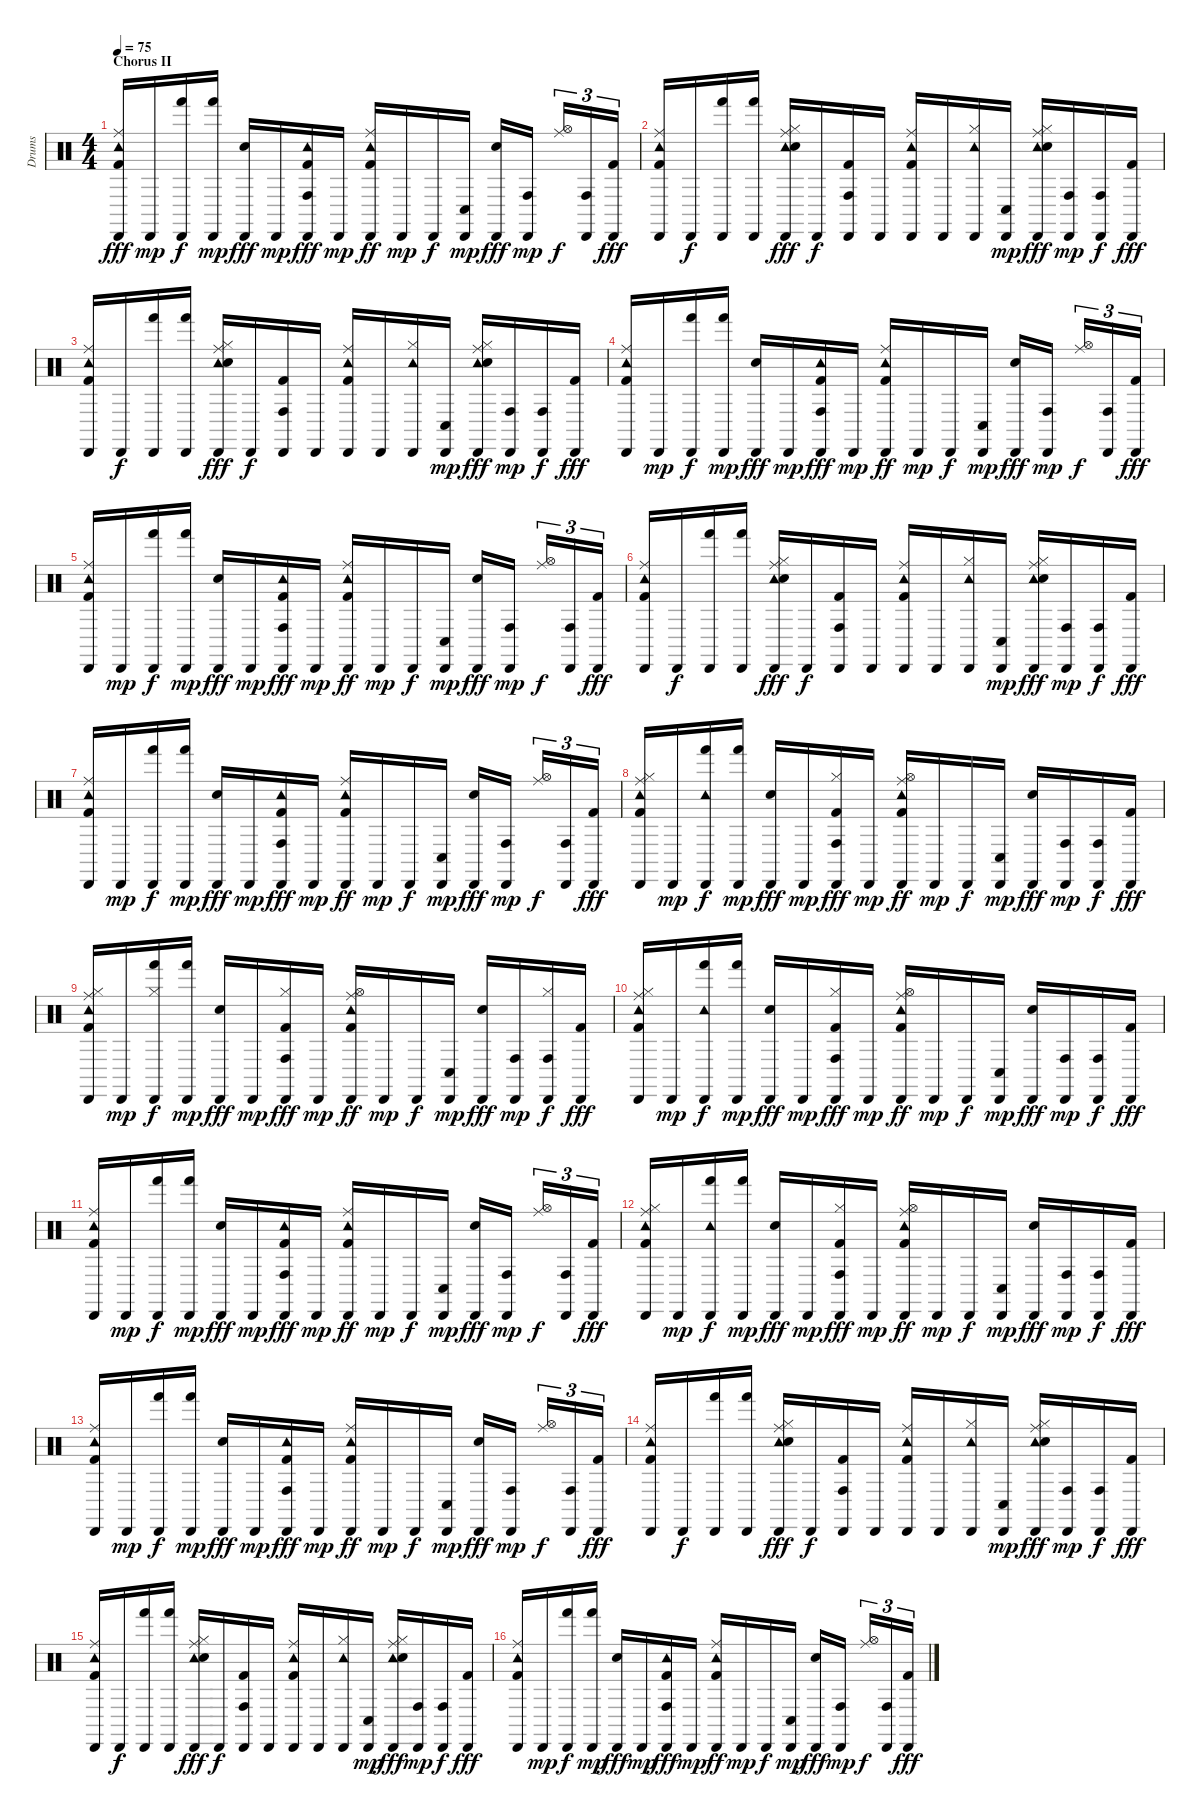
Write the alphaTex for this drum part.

\track ("Drums" "Drums") {instrument percussion}
\staff {score}
\articulation defaults
\ts (4 4)
\section ("" "Chorus II")
\tempo 75
\clef neutral
\ks c
("Cabasa (hit)" "Tambourine (hit)" "Kick (hit) 2" "Ride (middle)").16{dy fff} "Cabasa (hit)".16{dy mp} ("Cabasa (hit)" "Hand (hit)").16{dy f} ("Cabasa (hit)" "Hand (hit)").16{dy mp} ("Cabasa (hit)" "Snare (hit) 2").16{dy fff} "Cabasa (hit)".16{dy mp} ("Cabasa (hit)" "Conga high (hit)" "Tambourine (hit)" "Kick (hit) 2").16{dy fff} "Cabasa (hit)".16{dy mp} ("Tambourine (hit)" "Kick (hit) 2" "Ride (middle)" "Cabasa (hit)").16{dy ff} "Cabasa (hit)".16{dy mp} "Cabasa (hit)".16{dy f} ("Cabasa (hit)" "Conga low (hit)").16{dy mp} ("Cabasa (hit)" "Snare (hit) 2").16{dy fff} ("Cabasa (hit)" "Conga high (hit)").16{dy mp beam splitsecondary} ("Ride (middle)" "Hi-Hat (open)").16{tu (3 2) dy f} ("Cabasa (hit)" "Conga high (hit)").16{tu (3 2)} ("Cabasa (hit)" "Kick (hit) 2").16{tu (3 2) dy fff} |
("Ride (middle)" "Tambourine (hit)" "Kick (hit) 2" "Cabasa (hit)").16 "Cabasa (hit)".16{dy f} ("Hand (hit)" "Cabasa (hit)").16 ("Hand (hit)" "Cabasa (hit)").16 ("Cabasa (hit)" "Hi-Hat (closed)" "Tambourine (hit)" "Snare (hit) 2" "Ride (middle)").16{dy fff} "Cabasa (hit)".16{dy f} ("Conga high (hit)" "Kick (hit) 2" "Cabasa (hit)").16 "Cabasa (hit)".16 ("Ride (middle)" "Tambourine (hit)" "Kick (hit) 2" "Cabasa (hit)").16 "Cabasa (hit)".16 ("Cabasa (hit)" "Hi-Hat (closed)" "Tambourine (hit)").16 ("Cabasa (hit)" "Conga low (hit)").16{dy mp} ("Cabasa (hit)" "Hi-Hat (closed)" "Tambourine (hit)" "Snare (hit) 2" "Ride (middle)").16{dy fff} ("Cabasa (hit)" "Conga high (hit)").16{dy mp} ("Cabasa (hit)" "Conga high (hit)").16{dy f} ("Cabasa (hit)" "Kick (hit) 2").16{dy fff} |
("Ride (middle)" "Tambourine (hit)" "Kick (hit) 2" "Cabasa (hit)").16 "Cabasa (hit)".16{dy f} ("Hand (hit)" "Cabasa (hit)").16 ("Hand (hit)" "Cabasa (hit)").16 ("Cabasa (hit)" "Hi-Hat (closed)" "Tambourine (hit)" "Snare (hit) 2" "Ride (middle)").16{dy fff} "Cabasa (hit)".16{dy f} ("Conga high (hit)" "Kick (hit) 2" "Cabasa (hit)").16 "Cabasa (hit)".16 ("Ride (middle)" "Tambourine (hit)" "Kick (hit) 2" "Cabasa (hit)").16 "Cabasa (hit)".16 ("Cabasa (hit)" "Hi-Hat (closed)" "Tambourine (hit)").16 ("Cabasa (hit)" "Conga low (hit)").16{dy mp} ("Cabasa (hit)" "Hi-Hat (closed)" "Tambourine (hit)" "Snare (hit) 2" "Ride (middle)").16{dy fff} ("Cabasa (hit)" "Conga high (hit)").16{dy mp} ("Cabasa (hit)" "Conga high (hit)").16{dy f} ("Cabasa (hit)" "Kick (hit) 2").16{dy fff} |
("Cabasa (hit)" "Tambourine (hit)" "Kick (hit) 2" "Ride (middle)").16 "Cabasa (hit)".16{dy mp} ("Cabasa (hit)" "Hand (hit)").16{dy f} ("Cabasa (hit)" "Hand (hit)").16{dy mp} ("Cabasa (hit)" "Snare (hit) 2").16{dy fff} "Cabasa (hit)".16{dy mp} ("Cabasa (hit)" "Conga high (hit)" "Tambourine (hit)" "Kick (hit) 2").16{dy fff} "Cabasa (hit)".16{dy mp} ("Tambourine (hit)" "Kick (hit) 2" "Ride (middle)" "Cabasa (hit)").16{dy ff} "Cabasa (hit)".16{dy mp} "Cabasa (hit)".16{dy f} ("Cabasa (hit)" "Conga low (hit)").16{dy mp} ("Cabasa (hit)" "Snare (hit) 2").16{dy fff} ("Cabasa (hit)" "Conga high (hit)").16{dy mp beam splitsecondary} ("Ride (middle)" "Hi-Hat (open)").16{tu (3 2) dy f} ("Cabasa (hit)" "Conga high (hit)").16{tu (3 2)} ("Cabasa (hit)" "Kick (hit) 2").16{tu (3 2) dy fff} |
("Cabasa (hit)" "Tambourine (hit)" "Kick (hit) 2" "Ride (middle)").16 "Cabasa (hit)".16{dy mp} ("Cabasa (hit)" "Hand (hit)").16{dy f} ("Cabasa (hit)" "Hand (hit)").16{dy mp} ("Cabasa (hit)" "Snare (hit) 2").16{dy fff} "Cabasa (hit)".16{dy mp} ("Cabasa (hit)" "Conga high (hit)" "Tambourine (hit)" "Kick (hit) 2").16{dy fff} "Cabasa (hit)".16{dy mp} ("Tambourine (hit)" "Kick (hit) 2" "Ride (middle)" "Cabasa (hit)").16{dy ff} "Cabasa (hit)".16{dy mp} "Cabasa (hit)".16{dy f} ("Cabasa (hit)" "Conga low (hit)").16{dy mp} ("Cabasa (hit)" "Snare (hit) 2").16{dy fff} ("Cabasa (hit)" "Conga high (hit)").16{dy mp beam splitsecondary} ("Ride (middle)" "Hi-Hat (open)").16{tu (3 2) dy f} ("Cabasa (hit)" "Conga high (hit)").16{tu (3 2)} ("Cabasa (hit)" "Kick (hit) 2").16{tu (3 2) dy fff} |
("Ride (middle)" "Tambourine (hit)" "Kick (hit) 2" "Cabasa (hit)").16 "Cabasa (hit)".16{dy f} ("Hand (hit)" "Cabasa (hit)").16 ("Hand (hit)" "Cabasa (hit)").16 ("Cabasa (hit)" "Hi-Hat (closed)" "Tambourine (hit)" "Snare (hit) 2" "Ride (middle)").16{dy fff} "Cabasa (hit)".16{dy f} ("Conga high (hit)" "Kick (hit) 2" "Cabasa (hit)").16 "Cabasa (hit)".16 ("Ride (middle)" "Tambourine (hit)" "Kick (hit) 2" "Cabasa (hit)").16 "Cabasa (hit)".16 ("Cabasa (hit)" "Hi-Hat (closed)" "Tambourine (hit)").16 ("Cabasa (hit)" "Conga low (hit)").16{dy mp} ("Cabasa (hit)" "Hi-Hat (closed)" "Tambourine (hit)" "Snare (hit) 2" "Ride (middle)").16{dy fff} ("Cabasa (hit)" "Conga high (hit)").16{dy mp} ("Cabasa (hit)" "Conga high (hit)").16{dy f} ("Cabasa (hit)" "Kick (hit) 2").16{dy fff} |
("Cabasa (hit)" "Tambourine (hit)" "Kick (hit) 2" "Ride (middle)").16 "Cabasa (hit)".16{dy mp} ("Cabasa (hit)" "Hand (hit)").16{dy f} ("Cabasa (hit)" "Hand (hit)").16{dy mp} ("Cabasa (hit)" "Snare (hit) 2").16{dy fff} "Cabasa (hit)".16{dy mp} ("Cabasa (hit)" "Conga high (hit)" "Tambourine (hit)" "Kick (hit) 2").16{dy fff} "Cabasa (hit)".16{dy mp} ("Tambourine (hit)" "Kick (hit) 2" "Ride (middle)" "Cabasa (hit)").16{dy ff} "Cabasa (hit)".16{dy mp} "Cabasa (hit)".16{dy f} ("Cabasa (hit)" "Conga low (hit)").16{dy mp} ("Cabasa (hit)" "Snare (hit) 2").16{dy fff} ("Cabasa (hit)" "Conga high (hit)").16{dy mp beam splitsecondary} ("Ride (middle)" "Hi-Hat (open)").16{tu (3 2) dy f} ("Cabasa (hit)" "Conga high (hit)").16{tu (3 2)} ("Cabasa (hit)" "Kick (hit) 2").16{tu (3 2) dy fff} |
("Cabasa (hit)" "Tambourine (hit)" "Kick (hit) 2" "Ride (middle)" "Hi-Hat (closed)").16 "Cabasa (hit)".16{dy mp} ("Cabasa (hit)" "Hand (hit)" "Tambourine (hit)").16{dy f} ("Cabasa (hit)" "Hand (hit)").16{dy mp} ("Cabasa (hit)" "Snare (hit) 2").16{dy fff} "Cabasa (hit)".16{dy mp} ("Cabasa (hit)" "Conga high (hit)" "Hi-Hat (closed)" "Kick (hit) 2").16{dy fff} "Cabasa (hit)".16{dy mp} ("Tambourine (hit)" "Kick (hit) 2" "Ride (middle)" "Hi-Hat (open)" "Cabasa (hit)").16{dy ff} "Cabasa (hit)".16{dy mp} "Cabasa (hit)".16{dy f} ("Cabasa (hit)" "Conga low (hit)").16{dy mp} ("Cabasa (hit)" "Snare (hit) 2").16{dy fff} ("Cabasa (hit)" "Conga high (hit)").16{dy mp} ("Cabasa (hit)" "Conga high (hit)").16{dy f} ("Cabasa (hit)" "Kick (hit) 2").16{dy fff} |
("Cabasa (hit)" "Tambourine (hit)" "Kick (hit) 2" "Ride (middle)" "Hi-Hat (closed)").16 "Cabasa (hit)".16{dy mp} ("Cabasa (hit)" "Hand (hit)" "Hi-Hat (closed)").16{dy f} ("Cabasa (hit)" "Hand (hit)").16{dy mp} ("Cabasa (hit)" "Snare (hit) 2").16{dy fff} "Cabasa (hit)".16{dy mp} ("Cabasa (hit)" "Conga high (hit)" "Hi-Hat (closed)" "Kick (hit) 2").16{dy fff} "Cabasa (hit)".16{dy mp} ("Tambourine (hit)" "Kick (hit) 2" "Ride (middle)" "Hi-Hat (open)" "Cabasa (hit)").16{dy ff} "Cabasa (hit)".16{dy mp} "Cabasa (hit)".16{dy f} ("Cabasa (hit)" "Conga low (hit)").16{dy mp} ("Cabasa (hit)" "Snare (hit) 2").16{dy fff} ("Cabasa (hit)" "Conga high (hit)").16{dy mp} ("Cabasa (hit)" "Conga high (hit)" "Hi-Hat (closed)").16{dy f} ("Cabasa (hit)" "Kick (hit) 2").16{dy fff} |
("Cabasa (hit)" "Tambourine (hit)" "Kick (hit) 2" "Ride (middle)" "Hi-Hat (closed)").16 "Cabasa (hit)".16{dy mp} ("Cabasa (hit)" "Hand (hit)" "Tambourine (hit)").16{dy f} ("Cabasa (hit)" "Hand (hit)").16{dy mp} ("Cabasa (hit)" "Snare (hit) 2").16{dy fff} "Cabasa (hit)".16{dy mp} ("Cabasa (hit)" "Conga high (hit)" "Hi-Hat (closed)" "Kick (hit) 2").16{dy fff} "Cabasa (hit)".16{dy mp} ("Tambourine (hit)" "Kick (hit) 2" "Ride (middle)" "Hi-Hat (open)" "Cabasa (hit)").16{dy ff} "Cabasa (hit)".16{dy mp} "Cabasa (hit)".16{dy f} ("Cabasa (hit)" "Conga low (hit)").16{dy mp} ("Cabasa (hit)" "Snare (hit) 2").16{dy fff} ("Cabasa (hit)" "Conga high (hit)").16{dy mp} ("Cabasa (hit)" "Conga high (hit)").16{dy f} ("Cabasa (hit)" "Kick (hit) 2").16{dy fff} |
("Cabasa (hit)" "Tambourine (hit)" "Kick (hit) 2" "Ride (middle)").16 "Cabasa (hit)".16{dy mp} ("Cabasa (hit)" "Hand (hit)").16{dy f} ("Cabasa (hit)" "Hand (hit)").16{dy mp} ("Cabasa (hit)" "Snare (hit) 2").16{dy fff} "Cabasa (hit)".16{dy mp} ("Cabasa (hit)" "Conga high (hit)" "Tambourine (hit)" "Kick (hit) 2").16{dy fff} "Cabasa (hit)".16{dy mp} ("Tambourine (hit)" "Kick (hit) 2" "Ride (middle)" "Cabasa (hit)").16{dy ff} "Cabasa (hit)".16{dy mp} "Cabasa (hit)".16{dy f} ("Cabasa (hit)" "Conga low (hit)").16{dy mp} ("Cabasa (hit)" "Snare (hit) 2").16{dy fff} ("Cabasa (hit)" "Conga high (hit)").16{dy mp beam splitsecondary} ("Ride (middle)" "Hi-Hat (open)").16{tu (3 2) dy f} ("Cabasa (hit)" "Conga high (hit)").16{tu (3 2)} ("Cabasa (hit)" "Kick (hit) 2").16{tu (3 2) dy fff} |
("Cabasa (hit)" "Tambourine (hit)" "Kick (hit) 2" "Ride (middle)" "Hi-Hat (closed)").16 "Cabasa (hit)".16{dy mp} ("Cabasa (hit)" "Hand (hit)" "Tambourine (hit)").16{dy f} ("Cabasa (hit)" "Hand (hit)").16{dy mp} ("Cabasa (hit)" "Snare (hit) 2").16{dy fff} "Cabasa (hit)".16{dy mp} ("Cabasa (hit)" "Conga high (hit)" "Hi-Hat (closed)" "Kick (hit) 2").16{dy fff} "Cabasa (hit)".16{dy mp} ("Tambourine (hit)" "Kick (hit) 2" "Ride (middle)" "Hi-Hat (open)" "Cabasa (hit)").16{dy ff} "Cabasa (hit)".16{dy mp} "Cabasa (hit)".16{dy f} ("Cabasa (hit)" "Conga low (hit)").16{dy mp} ("Cabasa (hit)" "Snare (hit) 2").16{dy fff} ("Cabasa (hit)" "Conga high (hit)").16{dy mp} ("Cabasa (hit)" "Conga high (hit)").16{dy f} ("Cabasa (hit)" "Kick (hit) 2").16{dy fff} |
("Cabasa (hit)" "Tambourine (hit)" "Kick (hit) 2" "Ride (middle)").16 "Cabasa (hit)".16{dy mp} ("Cabasa (hit)" "Hand (hit)").16{dy f} ("Cabasa (hit)" "Hand (hit)").16{dy mp} ("Cabasa (hit)" "Snare (hit) 2").16{dy fff} "Cabasa (hit)".16{dy mp} ("Cabasa (hit)" "Conga high (hit)" "Tambourine (hit)" "Kick (hit) 2").16{dy fff} "Cabasa (hit)".16{dy mp} ("Tambourine (hit)" "Kick (hit) 2" "Ride (middle)" "Cabasa (hit)").16{dy ff} "Cabasa (hit)".16{dy mp} "Cabasa (hit)".16{dy f} ("Cabasa (hit)" "Conga low (hit)").16{dy mp} ("Cabasa (hit)" "Snare (hit) 2").16{dy fff} ("Cabasa (hit)" "Conga high (hit)").16{dy mp beam splitsecondary} ("Ride (middle)" "Hi-Hat (open)").16{tu (3 2) dy f} ("Cabasa (hit)" "Conga high (hit)").16{tu (3 2)} ("Cabasa (hit)" "Kick (hit) 2").16{tu (3 2) dy fff} |
("Ride (middle)" "Tambourine (hit)" "Kick (hit) 2" "Cabasa (hit)").16 "Cabasa (hit)".16{dy f} ("Hand (hit)" "Cabasa (hit)").16 ("Hand (hit)" "Cabasa (hit)").16 ("Cabasa (hit)" "Hi-Hat (closed)" "Tambourine (hit)" "Snare (hit) 2" "Ride (middle)").16{dy fff} "Cabasa (hit)".16{dy f} ("Conga high (hit)" "Kick (hit) 2" "Cabasa (hit)").16 "Cabasa (hit)".16 ("Ride (middle)" "Tambourine (hit)" "Kick (hit) 2" "Cabasa (hit)").16 "Cabasa (hit)".16 ("Cabasa (hit)" "Hi-Hat (closed)" "Tambourine (hit)").16 ("Cabasa (hit)" "Conga low (hit)").16{dy mp} ("Cabasa (hit)" "Hi-Hat (closed)" "Tambourine (hit)" "Snare (hit) 2" "Ride (middle)").16{dy fff} ("Cabasa (hit)" "Conga high (hit)").16{dy mp} ("Cabasa (hit)" "Conga high (hit)").16{dy f} ("Cabasa (hit)" "Kick (hit) 2").16{dy fff} |
("Ride (middle)" "Tambourine (hit)" "Kick (hit) 2" "Cabasa (hit)").16 "Cabasa (hit)".16{dy f} ("Hand (hit)" "Cabasa (hit)").16 ("Hand (hit)" "Cabasa (hit)").16 ("Cabasa (hit)" "Hi-Hat (closed)" "Tambourine (hit)" "Snare (hit) 2" "Ride (middle)").16{dy fff} "Cabasa (hit)".16{dy f} ("Conga high (hit)" "Kick (hit) 2" "Cabasa (hit)").16 "Cabasa (hit)".16 ("Ride (middle)" "Tambourine (hit)" "Kick (hit) 2" "Cabasa (hit)").16 "Cabasa (hit)".16 ("Cabasa (hit)" "Hi-Hat (closed)" "Tambourine (hit)").16 ("Cabasa (hit)" "Conga low (hit)").16{dy mp} ("Cabasa (hit)" "Hi-Hat (closed)" "Tambourine (hit)" "Snare (hit) 2" "Ride (middle)").16{dy fff} ("Cabasa (hit)" "Conga high (hit)").16{dy mp} ("Cabasa (hit)" "Conga high (hit)").16{dy f} ("Cabasa (hit)" "Kick (hit) 2").16{dy fff} |
("Cabasa (hit)" "Tambourine (hit)" "Kick (hit) 2" "Ride (middle)").16 "Cabasa (hit)".16{dy mp} ("Cabasa (hit)" "Hand (hit)").16{dy f} ("Cabasa (hit)" "Hand (hit)").16{dy mp} ("Cabasa (hit)" "Snare (hit) 2").16{dy fff} "Cabasa (hit)".16{dy mp} ("Cabasa (hit)" "Conga high (hit)" "Tambourine (hit)" "Kick (hit) 2").16{dy fff} "Cabasa (hit)".16{dy mp} ("Tambourine (hit)" "Kick (hit) 2" "Ride (middle)" "Cabasa (hit)").16{dy ff} "Cabasa (hit)".16{dy mp} "Cabasa (hit)".16{dy f} ("Cabasa (hit)" "Conga low (hit)").16{dy mp} ("Cabasa (hit)" "Snare (hit) 2").16{dy fff} ("Cabasa (hit)" "Conga high (hit)").16{dy mp beam splitsecondary} ("Ride (middle)" "Hi-Hat (open)").16{tu (3 2) dy f} ("Cabasa (hit)" "Conga high (hit)").16{tu (3 2)} ("Cabasa (hit)" "Kick (hit) 2").16{tu (3 2) dy fff}
